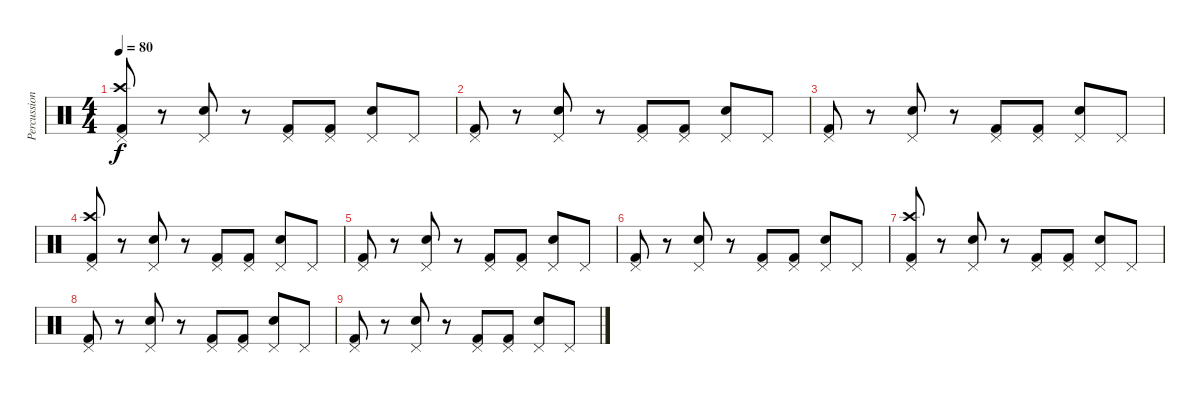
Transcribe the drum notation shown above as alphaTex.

\track ("Percussion" "Percussion") {instrument percussion}
\staff {score}
\articulation defaults
\ts (4 4)
\tempo 80
\clef neutral
\ks c
("Pedal Hi-Hat (hit)" "Crash high (hit)" "Kick (hit) 2").8{dy f} r.8 ("Pedal Hi-Hat (hit)" "Snare (hit) 2").8 r.8 ("Pedal Hi-Hat (hit)" "Kick (hit) 2").8 ("Pedal Hi-Hat (hit)" "Kick (hit) 2").8 ("Pedal Hi-Hat (hit)" "Snare (hit) 2").8 "Pedal Hi-Hat (hit)".8 |
("Pedal Hi-Hat (hit)" "Kick (hit) 2").8 r.8 ("Pedal Hi-Hat (hit)" "Snare (hit) 2").8 r.8 ("Pedal Hi-Hat (hit)" "Kick (hit) 2").8 ("Pedal Hi-Hat (hit)" "Kick (hit) 2").8 ("Pedal Hi-Hat (hit)" "Snare (hit) 2").8 "Pedal Hi-Hat (hit)".8 |
("Pedal Hi-Hat (hit)" "Kick (hit) 2").8 r.8 ("Pedal Hi-Hat (hit)" "Snare (hit) 2").8 r.8 ("Pedal Hi-Hat (hit)" "Kick (hit) 2").8 ("Pedal Hi-Hat (hit)" "Kick (hit) 2").8 ("Pedal Hi-Hat (hit)" "Snare (hit) 2").8 "Pedal Hi-Hat (hit)".8 |
("Pedal Hi-Hat (hit)" "Crash high (hit)" "Kick (hit) 2").8 r.8 ("Pedal Hi-Hat (hit)" "Snare (hit) 2").8 r.8 ("Pedal Hi-Hat (hit)" "Kick (hit) 2").8 ("Pedal Hi-Hat (hit)" "Kick (hit) 2").8 ("Pedal Hi-Hat (hit)" "Snare (hit) 2").8 "Pedal Hi-Hat (hit)".8 |
("Pedal Hi-Hat (hit)" "Kick (hit) 2").8 r.8 ("Pedal Hi-Hat (hit)" "Snare (hit) 2").8 r.8 ("Pedal Hi-Hat (hit)" "Kick (hit) 2").8 ("Pedal Hi-Hat (hit)" "Kick (hit) 2").8 ("Pedal Hi-Hat (hit)" "Snare (hit) 2").8 "Pedal Hi-Hat (hit)".8 |
("Pedal Hi-Hat (hit)" "Kick (hit) 2").8 r.8 ("Pedal Hi-Hat (hit)" "Snare (hit) 2").8 r.8 ("Pedal Hi-Hat (hit)" "Kick (hit) 2").8 ("Pedal Hi-Hat (hit)" "Kick (hit) 2").8 ("Pedal Hi-Hat (hit)" "Snare (hit) 2").8 "Pedal Hi-Hat (hit)".8 |
("Pedal Hi-Hat (hit)" "Crash high (hit)" "Kick (hit) 2").8 r.8 ("Pedal Hi-Hat (hit)" "Snare (hit) 2").8 r.8 ("Pedal Hi-Hat (hit)" "Kick (hit) 2").8 ("Pedal Hi-Hat (hit)" "Kick (hit) 2").8 ("Pedal Hi-Hat (hit)" "Snare (hit) 2").8 "Pedal Hi-Hat (hit)".8 |
("Pedal Hi-Hat (hit)" "Kick (hit) 2").8 r.8 ("Pedal Hi-Hat (hit)" "Snare (hit) 2").8 r.8 ("Pedal Hi-Hat (hit)" "Kick (hit) 2").8 ("Pedal Hi-Hat (hit)" "Kick (hit) 2").8 ("Pedal Hi-Hat (hit)" "Snare (hit) 2").8 "Pedal Hi-Hat (hit)".8 |
("Pedal Hi-Hat (hit)" "Kick (hit) 2").8 r.8 ("Pedal Hi-Hat (hit)" "Snare (hit) 2").8 r.8 ("Pedal Hi-Hat (hit)" "Kick (hit) 2").8 ("Pedal Hi-Hat (hit)" "Kick (hit) 2").8 ("Pedal Hi-Hat (hit)" "Snare (hit) 2").8 "Pedal Hi-Hat (hit)".8
